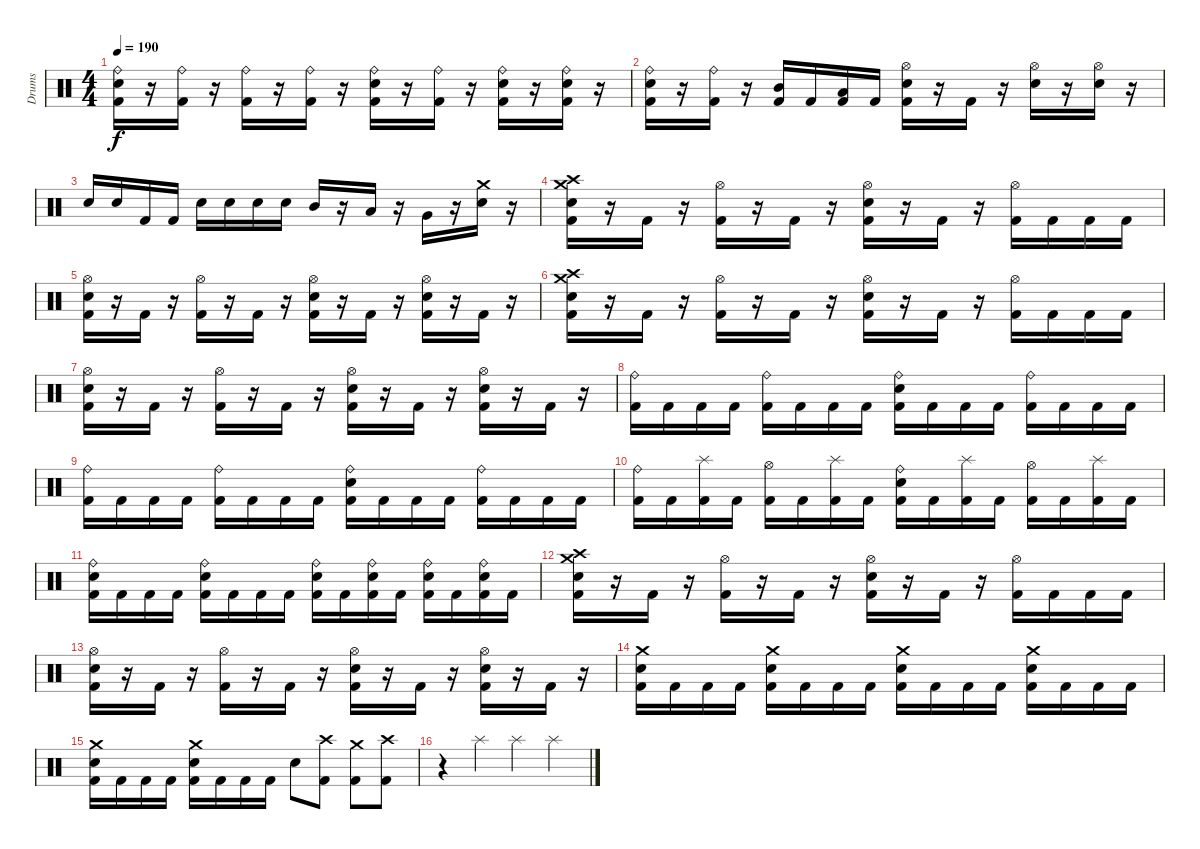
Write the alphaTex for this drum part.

\track ("Drums" "Drums") {instrument percussion}
\staff {score}
\articulation defaults
\ts (4 4)
\tempo 190
\clef neutral
\ks c
("Ride (bell)" "Snare (hit) 2" "Kick (hit) 2").16{dy f} r.16 ("Ride (bell)" "Kick (hit) 2").16 r.16 ("Ride (bell)" "Kick (hit) 2").16 r.16 ("Ride (bell)" "Kick (hit) 2").16 r.16 ("Ride (bell)" "Snare (hit) 2" "Kick (hit) 2").16 r.16 ("Ride (bell)" "Kick (hit) 2").16 r.16 ("Ride (bell)" "Snare (hit) 2" "Kick (hit) 2").16 r.16 ("Ride (bell)" "Snare (hit) 2" "Kick (hit) 2").16 r.16 |
("Ride (bell)" "Snare (hit) 2" "Kick (hit) 2").16 r.16 ("Ride (bell)" "Kick (hit) 2").16 r.16 ("Mid Tom (hit)" "Kick (hit) 2").16 "Kick (hit) 2".16 ("Low Tom (hit)" "Kick (hit) 2").16 "Kick (hit) 2".16 ("Hi-Hat (open)" "Snare (hit) 2" "Kick (hit) 2").16 r.16 "Kick (hit) 2".16 r.16 ("Hi-Hat (open)" "Snare (hit) 2").16 r.16 ("Hi-Hat (open)" "Snare (hit) 2").16 r.16 |
"Snare (hit) 2".16 "Snare (hit) 2".16 "Kick (hit) 2".16 "Kick (hit) 2".16 "Snare (hit) 2".16 "Snare (hit) 2".16 "Snare (hit) 2".16 "Snare (hit) 2".16 "Mid Tom (hit)".16 r.16 "Low Tom (hit)".16 r.16 "Very Low Tom (hit)".16 r.16 ("Crash medium (hit)" "Snare (hit) 2").16 r.16 |
("Crash high (hit)" "Crash medium (hit)" "Snare (hit) 2" "Kick (hit) 2").16 r.16 "Kick (hit) 2".16 r.16 ("Hi-Hat (open)" "Kick (hit) 2").16 r.16 "Kick (hit) 2".16 r.16 ("Hi-Hat (open)" "Snare (hit) 2" "Kick (hit) 2").16 r.16 "Kick (hit) 2".16 r.16 ("Hi-Hat (open)" "Kick (hit) 2").16 "Kick (hit) 2".16 "Kick (hit) 2".16 "Kick (hit) 2".16 |
("Hi-Hat (open)" "Snare (hit) 2" "Kick (hit) 2").16 r.16 "Kick (hit) 2".16 r.16 ("Hi-Hat (open)" "Kick (hit) 2").16 r.16 "Kick (hit) 2".16 r.16 ("Hi-Hat (open)" "Snare (hit) 2" "Kick (hit) 2").16 r.16 "Kick (hit) 2".16 r.16 ("Hi-Hat (open)" "Snare (hit) 2" "Kick (hit) 2").16 r.16 "Kick (hit) 2".16 r.16 |
("Crash high (hit)" "Crash medium (hit)" "Snare (hit) 2" "Kick (hit) 2").16 r.16 "Kick (hit) 2".16 r.16 ("Hi-Hat (open)" "Kick (hit) 2").16 r.16 "Kick (hit) 2".16 r.16 ("Hi-Hat (open)" "Snare (hit) 2" "Kick (hit) 2").16 r.16 "Kick (hit) 2".16 r.16 ("Hi-Hat (open)" "Kick (hit) 2").16 "Kick (hit) 2".16 "Kick (hit) 2".16 "Kick (hit) 2".16 |
("Hi-Hat (open)" "Snare (hit) 2" "Kick (hit) 2").16 r.16 "Kick (hit) 2".16 r.16 ("Hi-Hat (open)" "Kick (hit) 2").16 r.16 "Kick (hit) 2".16 r.16 ("Hi-Hat (open)" "Snare (hit) 2" "Kick (hit) 2").16 r.16 "Kick (hit) 2".16 r.16 ("Hi-Hat (open)" "Snare (hit) 2" "Kick (hit) 2").16 r.16 "Kick (hit) 2".16 r.16 |
("Ride (bell)" "Kick (hit) 2").16 "Kick (hit) 2".16 "Kick (hit) 2".16 "Kick (hit) 2".16 ("Ride (bell)" "Kick (hit) 2").16 "Kick (hit) 2".16 "Kick (hit) 2".16 "Kick (hit) 2".16 ("Ride (bell)" "Snare (hit) 2" "Kick (hit) 2").16 "Kick (hit) 2".16 "Kick (hit) 2".16 "Kick (hit) 2".16 ("Ride (bell)" "Kick (hit) 2").16 "Kick (hit) 2".16 "Kick (hit) 2".16 "Kick (hit) 2".16 |
("Ride (bell)" "Kick (hit) 2").16 "Kick (hit) 2".16 "Kick (hit) 2".16 "Kick (hit) 2".16 ("Ride (bell)" "Kick (hit) 2").16 "Kick (hit) 2".16 "Kick (hit) 2".16 "Kick (hit) 2".16 ("Ride (bell)" "Snare (hit) 2" "Kick (hit) 2").16 "Kick (hit) 2".16 "Kick (hit) 2".16 "Kick (hit) 2".16 ("Ride (bell)" "Kick (hit) 2").16 "Kick (hit) 2".16 "Kick (hit) 2".16 "Kick (hit) 2".16 |
("Ride (bell)" "Kick (hit) 2").16 "Kick (hit) 2".16 ("Splash (hit)" "Kick (hit) 2").16 "Kick (hit) 2".16 ("Hi-Hat (open)" "Kick (hit) 2").16 "Kick (hit) 2".16 ("Splash (hit)" "Kick (hit) 2").16 "Kick (hit) 2".16 ("Ride (bell)" "Snare (hit) 2" "Kick (hit) 2").16 "Kick (hit) 2".16 ("Splash (hit)" "Kick (hit) 2").16 "Kick (hit) 2".16 ("Hi-Hat (open)" "Kick (hit) 2").16 "Kick (hit) 2".16 ("Splash (hit)" "Kick (hit) 2").16 "Kick (hit) 2".16 |
("Ride (bell)" "Snare (hit) 2" "Kick (hit) 2").16 "Kick (hit) 2".16 "Kick (hit) 2".16 "Kick (hit) 2".16 ("Ride (bell)" "Snare (hit) 2" "Kick (hit) 2").16 "Kick (hit) 2".16 "Kick (hit) 2".16 "Kick (hit) 2".16 ("Ride (bell)" "Snare (hit) 2" "Kick (hit) 2").16 "Kick (hit) 2".16 ("Ride (bell)" "Snare (hit) 2" "Kick (hit) 2").16 "Kick (hit) 2".16 ("Ride (bell)" "Snare (hit) 2" "Kick (hit) 2").16 "Kick (hit) 2".16 ("Ride (bell)" "Snare (hit) 2" "Kick (hit) 2").16 "Kick (hit) 2".16 |
("Crash high (hit)" "Crash medium (hit)" "Snare (hit) 2" "Kick (hit) 2").16 r.16 "Kick (hit) 2".16 r.16 ("Hi-Hat (open)" "Kick (hit) 2").16 r.16 "Kick (hit) 2".16 r.16 ("Hi-Hat (open)" "Snare (hit) 2" "Kick (hit) 2").16 r.16 "Kick (hit) 2".16 r.16 ("Hi-Hat (open)" "Kick (hit) 2").16 "Kick (hit) 2".16 "Kick (hit) 2".16 "Kick (hit) 2".16 |
("Hi-Hat (open)" "Snare (hit) 2" "Kick (hit) 2").16 r.16 "Kick (hit) 2".16 r.16 ("Hi-Hat (open)" "Kick (hit) 2").16 r.16 "Kick (hit) 2".16 r.16 ("Hi-Hat (open)" "Snare (hit) 2" "Kick (hit) 2").16 r.16 "Kick (hit) 2".16 r.16 ("Hi-Hat (open)" "Snare (hit) 2" "Kick (hit) 2").16 r.16 "Kick (hit) 2".16 r.16 |
("Crash medium (hit)" "Snare (hit) 2" "Kick (hit) 2").16 "Kick (hit) 2".16 "Kick (hit) 2".16 "Kick (hit) 2".16 ("Crash medium (hit)" "Snare (hit) 2" "Kick (hit) 2").16 "Kick (hit) 2".16 "Kick (hit) 2".16 "Kick (hit) 2".16 ("Crash medium (hit)" "Snare (hit) 2" "Kick (hit) 2").16 "Kick (hit) 2".16 "Kick (hit) 2".16 "Kick (hit) 2".16 ("Crash medium (hit)" "Snare (hit) 2" "Kick (hit) 2").16 "Kick (hit) 2".16 "Kick (hit) 2".16 "Kick (hit) 2".16 |
("Crash medium (hit)" "Snare (hit) 2" "Kick (hit) 2").16 "Kick (hit) 2".16 "Kick (hit) 2".16 "Kick (hit) 2".16 ("Crash medium (hit)" "Snare (hit) 2" "Kick (hit) 2").16 "Kick (hit) 2".16 "Kick (hit) 2".16 "Kick (hit) 2".16 "Snare (hit) 2".8 ("Crash high (hit)" "Kick (hit) 2").8 ("Crash medium (hit)" "Kick (hit) 2").8 ("Crash high (hit)" "Kick (hit) 2").8 |
r.4 "Splash (hit)".4 "Splash (hit)".4 "Splash (hit)".4
